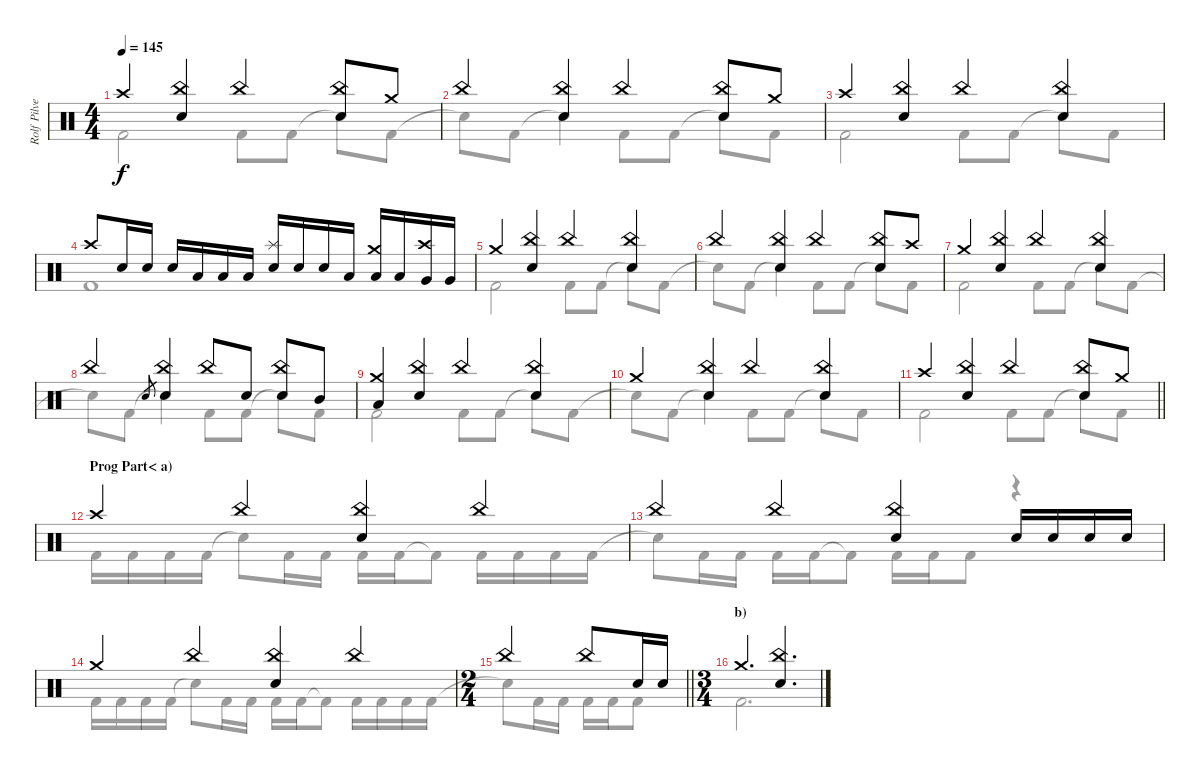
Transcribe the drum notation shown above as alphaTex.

\track ("Rolf Pilve - drums" "Rolf Pilve") {instrument percussion}
\staff {score}
\articulation defaults
\voice
\ts (4 4)
\tempo 145
\clef neutral
\ks aminor "Crash high (hit)".4{dy f}
("China (hit)" "Electric Snare (hit)").4 "China (hit)".4 ("China (hit)" "Electric Snare (hit)").8 "Crash medium (hit)".8 |
"China (hit)".4 ("China (hit)" "Electric Snare (hit)").4 "China (hit)".4 ("China (hit)" "Electric Snare (hit)").8 "Crash medium (hit)".8 |
"Crash high (hit)".4 ("China (hit)" "Electric Snare (hit)").4 "China (hit)".4 ("China (hit)" "Electric Snare (hit)").4 |
"Crash high (hit)".8 "Electric Snare (hit)".16 "Electric Snare (hit)".16 "Electric Snare (hit)".16 "Low Tom (hit)".16 "Low Tom (hit)".16 "Low Tom (hit)".16 ("Splash (hit)" "Electric Snare (hit)").16 "Electric Snare (hit)".16 "Electric Snare (hit)".16 "Low Tom (hit)".16 ("Crash medium (hit)" "Low Tom (hit)").16 "Low Tom (hit)".16 ("Crash high (hit)" "Very Low Tom (hit)").16 "Very Low Tom (hit)".16 |
"Crash medium (hit)".4 ("China (hit)" "Electric Snare (hit)").4 "China (hit)".4 ("China (hit)" "Electric Snare (hit)").4 |
"China (hit)".4 ("China (hit)" "Electric Snare (hit)").4 "China (hit)".4 ("China (hit)" "Electric Snare (hit)").8 "Crash high (hit)".8 |
"Crash medium (hit)".4 ("China (hit)" "Electric Snare (hit)").4 "China (hit)".4 ("China (hit)" "Electric Snare (hit)").4 |
"China (hit)".4 "Electric Snare (hit)".8{gr} ("Electric Snare (hit)" "China (hit)").4 "China (hit)".8 "Electric Snare (hit)".8 ("Electric Snare (hit)" "China (hit)").8 "Mid Tom (hit)".8 |
("Low Tom (hit)" "Crash medium (hit)").4 ("Electric Snare (hit)" "China (hit)").4 "China (hit)".4 ("Electric Snare (hit)" "China (hit)").4 |
"Crash medium (hit)".4 ("China (hit)" "Electric Snare (hit)").4 "China (hit)".4 ("China (hit)" "Electric Snare (hit)").4 |
\barLineRight lightlight "Crash high (hit)".4
("China (hit)" "Electric Snare (hit)").4 "China (hit)".4 ("China (hit)" "Electric Snare (hit)").8 "Crash medium (hit)".8 |
\section ("" "Prog Part< a)")
"Crash high (hit)".4 "China (hit)".4 ("China (hit)" "Electric Snare (hit)").4 "China (hit)".4 |
"China (hit)".4 "China (hit)".4 ("China (hit)" "Electric Snare (hit)").4 "Electric Snare (hit)".16 "Electric Snare (hit)".16 "Electric Snare (hit)".16 "Electric Snare (hit)".16 |
"Crash medium (hit)".4 "China (hit)".4 ("China (hit)" "Electric Snare (hit)").4 "China (hit)".4 |
\ts (2 4)
\barLineRight lightlight "China (hit)".4 "China (hit)".8 "Electric Snare (hit)".16 "Electric Snare (hit)".16
|
\ts (3 4)
\section ("" "b)")
"Crash medium (hit)".4{d} ("China (hit)" "Electric Snare (hit)").4{d}
\voice
\clef neutral
\ottava regular
\simile none
\ks aminor "Kick (hit) 2".2{dy f} "Kick (hit) 2".8 "Kick (hit) 2".8 "Snare (hit)"{t}.8 "Kick (hit) 2".8
|
"Snare (hit)"{t}.8 "Kick (hit) 2".8 "Snare (hit)"{t}.4 "Kick (hit) 2".8 "Kick (hit) 2".8 "Snare (hit)"{t}.8 "Kick (hit) 2".8 |
"Kick (hit) 2".2 "Kick (hit) 2".8 "Kick (hit) 2".8 "Snare (hit)"{t}.8 "Kick (hit) 2".8 |
"Kick (hit) 2".1 |
"Kick (hit) 2".2 "Kick (hit) 2".8 "Kick (hit) 2".8 "Snare (hit)"{t}.8 "Kick (hit) 2".8 |
"Snare (hit)"{t}.8 "Kick (hit) 2".8 "Snare (hit)"{t}.4 "Kick (hit) 2".8 "Kick (hit) 2".8 "Snare (hit)"{t}.8 "Kick (hit) 2".8 |
"Kick (hit) 2".2 "Kick (hit) 2".8 "Kick (hit) 2".8 "Snare (hit)"{t}.8 "Kick (hit) 2".8 |
"Snare (hit)"{t}.8 "Kick (hit) 2".8 "Snare (hit)"{t}.4 "Kick (hit) 2".8 "Kick (hit) 2".8 "Snare (hit)"{t}.8 "Kick (hit) 2".8 |
"Kick (hit) 2".2 "Kick (hit) 2".8 "Kick (hit) 2".8 "Snare (hit)"{t}.8 "Kick (hit) 2".8 |
"Snare (hit)"{t}.8 "Kick (hit) 2".8 "Snare (hit)"{t}.4 "Kick (hit) 2".8 "Kick (hit) 2".8 "Snare (hit)"{t}.8 "Kick (hit) 2".8 |
\barLineRight lightlight "Kick (hit) 2".2 "Kick (hit) 2".8 "Kick (hit) 2".8 "Snare (hit)"{t}.8 "Kick (hit) 2".8
|
"Kick (hit) 2".16 "Kick (hit) 2".16 "Kick (hit) 2".16 "Kick (hit) 2".16 "Snare (hit)"{t}.8 "Kick (hit) 2".16 "Kick (hit) 2".16 "Kick (hit) 2".16 "Kick (hit) 2".16 "Kick (hit) 2"{t}.8 "Kick (hit) 2".16 "Kick (hit) 2".16 "Kick (hit) 2".16 "Kick (hit) 2".16 |
"Snare (hit)"{t}.8 "Kick (hit) 2".16 "Kick (hit) 2".16 "Kick (hit) 2".16 "Kick (hit) 2".16 "Kick (hit) 2"{t}.8 "Kick (hit) 2".16 "Kick (hit) 2".16 "Kick (hit) 2".8 r.4 |
"Kick (hit) 2".16 "Kick (hit) 2".16 "Kick (hit) 2".16 "Kick (hit) 2".16 "Snare (hit)"{t}.8 "Kick (hit) 2".16 "Kick (hit) 2".16 "Kick (hit) 2".16 "Kick (hit) 2".16 "Kick (hit) 2"{t}.8 "Kick (hit) 2".16 "Kick (hit) 2".16 "Kick (hit) 2".16 "Kick (hit) 2".16 |
\barLineRight lightlight "Snare (hit)"{t}.8 "Kick (hit) 2".16 "Kick (hit) 2".16 "Kick (hit) 2".16 "Kick (hit) 2".16 "Kick (hit) 2".8
|
"Kick (hit) 2".2{d}
